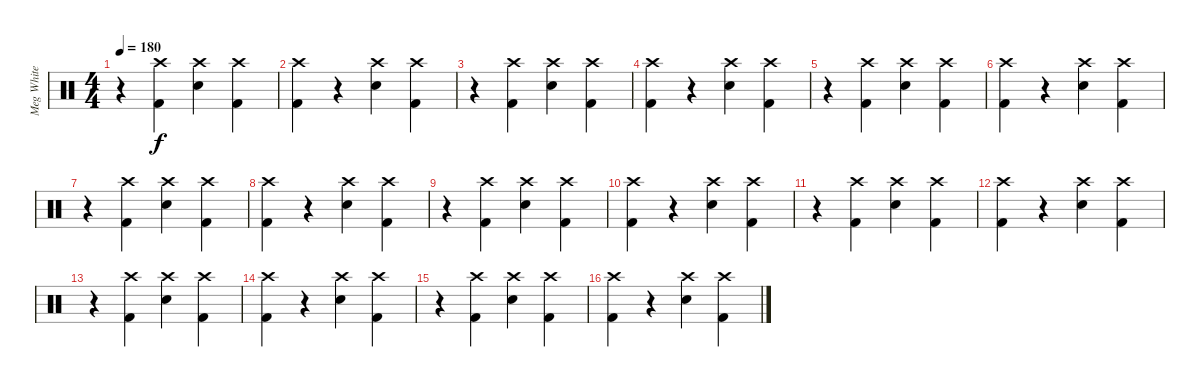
\track ("Meg White" "Meg White") {instrument percussion}
\staff {score}
\articulation defaults
\ts (4 4)
\tempo 180
\clef neutral
\ks c
r.4{dy f} ("Crash high (hit)" "Kick (hit) 2").4 ("Crash high (hit)" "Snare (hit) 2").4 ("Crash high (hit)" "Kick (hit) 2").4 |
("Crash high (hit)" "Kick (hit) 2").4 r.4 ("Crash high (hit)" "Snare (hit) 2").4 ("Crash high (hit)" "Kick (hit) 2").4 |
r.4 ("Crash high (hit)" "Kick (hit) 2").4 ("Crash high (hit)" "Snare (hit) 2").4 ("Crash high (hit)" "Kick (hit) 2").4 |
("Crash high (hit)" "Kick (hit) 2").4 r.4 ("Crash high (hit)" "Snare (hit) 2").4 ("Crash high (hit)" "Kick (hit) 2").4 |
r.4 ("Crash high (hit)" "Kick (hit) 2").4 ("Crash high (hit)" "Snare (hit) 2").4 ("Crash high (hit)" "Kick (hit) 2").4 |
("Crash high (hit)" "Kick (hit) 2").4 r.4 ("Crash high (hit)" "Snare (hit) 2").4 ("Crash high (hit)" "Kick (hit) 2").4 |
r.4 ("Crash high (hit)" "Kick (hit) 2").4 ("Crash high (hit)" "Snare (hit) 2").4 ("Crash high (hit)" "Kick (hit) 2").4 |
("Crash high (hit)" "Kick (hit) 2").4 r.4 ("Crash high (hit)" "Snare (hit) 2").4 ("Crash high (hit)" "Kick (hit) 2").4 |
r.4 ("Crash high (hit)" "Kick (hit) 2").4 ("Crash high (hit)" "Snare (hit) 2").4 ("Crash high (hit)" "Kick (hit) 2").4 |
("Crash high (hit)" "Kick (hit) 2").4 r.4 ("Crash high (hit)" "Snare (hit) 2").4 ("Crash high (hit)" "Kick (hit) 2").4 |
r.4 ("Crash high (hit)" "Kick (hit) 2").4 ("Crash high (hit)" "Snare (hit) 2").4 ("Crash high (hit)" "Kick (hit) 2").4 |
("Crash high (hit)" "Kick (hit) 2").4 r.4 ("Crash high (hit)" "Snare (hit) 2").4 ("Crash high (hit)" "Kick (hit) 2").4 |
r.4 ("Crash high (hit)" "Kick (hit) 2").4 ("Crash high (hit)" "Snare (hit) 2").4 ("Crash high (hit)" "Kick (hit) 2").4 |
("Crash high (hit)" "Kick (hit) 2").4 r.4 ("Crash high (hit)" "Snare (hit) 2").4 ("Crash high (hit)" "Kick (hit) 2").4 |
r.4 ("Crash high (hit)" "Kick (hit) 2").4 ("Crash high (hit)" "Snare (hit) 2").4 ("Crash high (hit)" "Kick (hit) 2").4 |
("Crash high (hit)" "Kick (hit) 2").4 r.4 ("Crash high (hit)" "Snare (hit) 2").4 ("Crash high (hit)" "Kick (hit) 2").4
